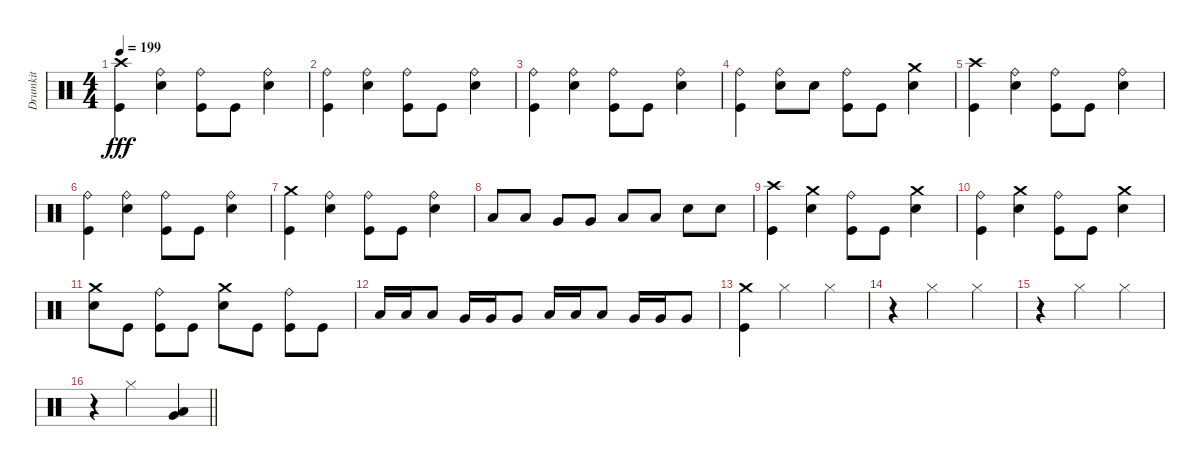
\track ("Drumkit" "Drumkit") {instrument percussion}
\staff
\articulation defaults
\ts (4 4)
\tempo 199
\clef neutral
\ks c
("Crash high (hit)" "Kick (hit)").4{dy fff} ("Snare (hit) 2" "Ride (bell)").4 ("Kick (hit)" "Ride (bell)").8 "Kick (hit)".8 ("Snare (hit) 2" "Ride (bell)").4 |
("Kick (hit)" "Ride (bell)").4 ("Snare (hit) 2" "Ride (bell)").4 ("Kick (hit)" "Ride (bell)").8 "Kick (hit)".8 ("Snare (hit) 2" "Ride (bell)").4 |
("Kick (hit)" "Ride (bell)").4 ("Snare (hit) 2" "Ride (bell)").4 ("Kick (hit)" "Ride (bell)").8 "Kick (hit)".8 ("Snare (hit) 2" "Ride (bell)").4 |
("Kick (hit)" "Ride (bell)").4 ("Snare (hit) 2" "Ride (bell)").8 "Snare (hit) 2".8 ("Kick (hit)" "Ride (bell)").8 "Kick (hit)".8 ("Snare (hit) 2" "Crash medium (hit)").4 |
("Crash high (hit)" "Kick (hit)").4 ("Snare (hit) 2" "Ride (bell)").4 ("Kick (hit)" "Ride (bell)").8 "Kick (hit)".8 ("Snare (hit) 2" "Ride (bell)").4 |
("Kick (hit)" "Ride (bell)").4 ("Snare (hit) 2" "Ride (bell)").4 ("Kick (hit)" "Ride (bell)").8 "Kick (hit)".8 ("Snare (hit) 2" "Ride (bell)").4 |
("Kick (hit)" "Crash medium (hit)").4 ("Snare (hit) 2" "Ride (bell)").4 ("Kick (hit)" "Ride (bell)").8 "Kick (hit)".8 ("Snare (hit) 2" "Ride (bell)").4 |
"Low Tom (hit)".8 "Low Tom (hit)".8 "Very Low Tom (hit)".8 "Very Low Tom (hit)".8 "Low Floor Tom (hit)".8 "Low Floor Tom (hit)".8 "Snare (hit) 2".8 "Snare (hit) 2".8 |
("Crash high (hit)" "Kick (hit)").4 ("Crash medium (hit)" "Snare (hit) 2").4 ("Ride (bell)" "Kick (hit)").8 "Kick (hit)".8 ("Crash medium (hit)" "Snare (hit) 2").4 |
("Ride (bell)" "Kick (hit)").4 ("Crash medium (hit)" "Snare (hit) 2").4 ("Ride (bell)" "Kick (hit)").8 "Kick (hit)".8 ("Crash medium (hit)" "Snare (hit) 2").4 |
("Crash medium (hit)" "Snare (hit) 2").8 "Kick (hit)".8 ("Ride (bell)" "Kick (hit)").8 "Kick (hit)".8 ("Crash medium (hit)" "Snare (hit) 2").8 "Kick (hit)".8 ("Ride (bell)" "Kick (hit)").8 "Kick (hit)".8 |
"Low Tom (hit)".16 "Low Tom (hit)".16 "Low Tom (hit)".8 "Very Low Tom (hit)".16 "Very Low Tom (hit)".16 "Very Low Tom (hit)".8 "Low Floor Tom (hit)".16 "Low Floor Tom (hit)".16 "Low Floor Tom (hit)".8 "Very Low Tom (hit)".16 "Very Low Tom (hit)".16 "Very Low Tom (hit)".8 |
("Kick (hit)" "Crash medium (hit)").4 "Hi-Hat (closed)".2 "Hi-Hat (closed)".4 |
r.4 "Hi-Hat (closed)".2 "Hi-Hat (closed)".4 |
r.4 "Hi-Hat (closed)".2 "Hi-Hat (closed)".4 |
\barLineRight lightlight
r.4 "Hi-Hat (closed)".2 ("Very Low Tom (hit)" "Low Floor Tom (hit)").4
